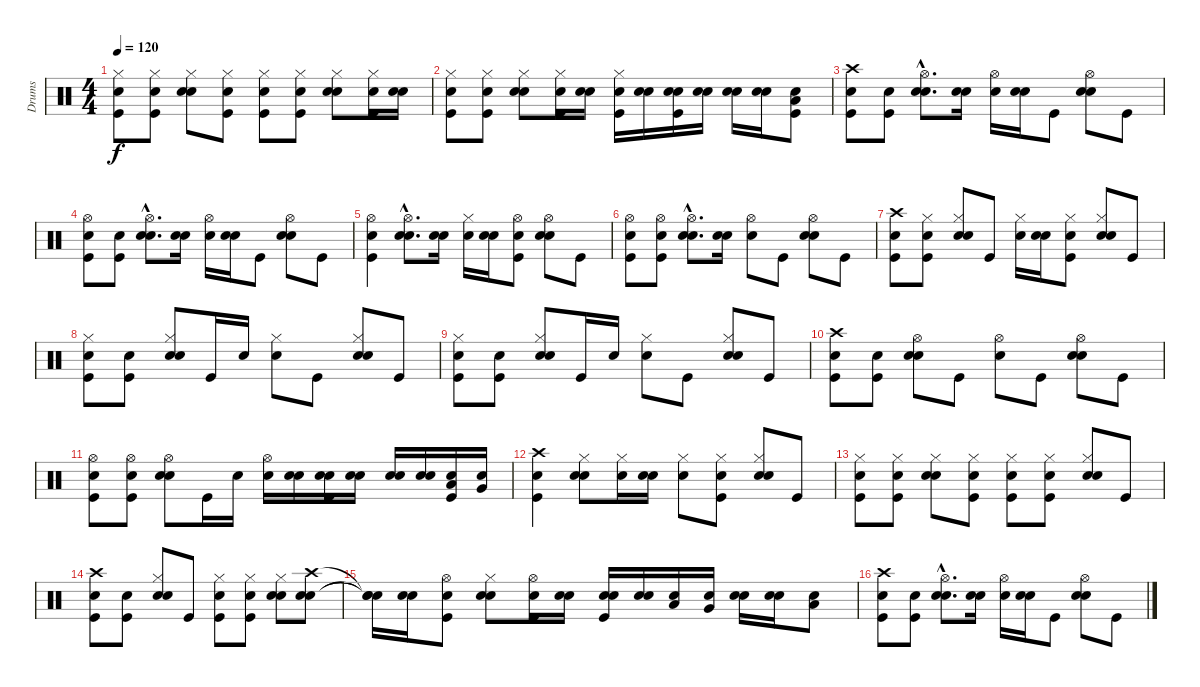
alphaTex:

\track ("Drums" "Drums") {instrument percussion}
\staff {score}
\articulation defaults
\ts (4 4)
\tempo 120
\clef neutral
\ks c
("Snare (hit)" "Kick (hit)" "Hi-Hat (closed)").8{dy f} ("Snare (hit)" "Kick (hit)" "Hi-Hat (closed)").8 ("Snare (hit)" "Electric Snare (hit)" "Hi-Hat (closed)").8 ("Snare (hit)" "Kick (hit)" "Hi-Hat (closed)").8 ("Snare (hit)" "Kick (hit)" "Hi-Hat (closed)").8 ("Snare (hit)" "Kick (hit)" "Hi-Hat (closed)").8 ("Snare (hit)" "Electric Snare (hit)" "Hi-Hat (closed)").8 ("Snare (hit)" "Kick (hit)" "Hi-Hat (closed)").16 ("Snare (hit)" "Electric Snare (hit)").16 |
("Snare (hit)" "Kick (hit)" "Hi-Hat (closed)").8 ("Snare (hit)" "Kick (hit)" "Hi-Hat (closed)").8 ("Snare (hit)" "Electric Snare (hit)" "Hi-Hat (closed)").8 ("Snare (hit)" "Kick (hit)" "Hi-Hat (closed)").16 ("Snare (hit)" "Electric Snare (hit)").16 ("Snare (hit)" "Kick (hit)" "Hi-Hat (closed)").16 ("Snare (hit)" "Electric Snare (hit)").16 ("Snare (hit)" "Kick (hit)" "Electric Snare (hit)").16 ("Snare (hit)" "Electric Snare (hit)").16 ("Snare (hit)" "Electric Snare (hit)").16 ("Snare (hit)" "Electric Snare (hit)").16 ("Snare (hit)" "Kick (hit)" "Low Tom (hit)").8 |
("Snare (hit)" "Kick (hit)" "Crash high (hit)").8 ("Snare (hit)" "Kick (hit)").8 ("Snare (hit)"{hac} "Electric Snare (hit)"{hac} "Hi-Hat (open)"{hac}).8{d} ("Snare (hit)" "Electric Snare (hit)").16 ("Snare (hit)" "Hi-Hat (open)").16 ("Snare (hit)" "Electric Snare (hit)").16 "Kick (hit)".8 ("Snare (hit)" "Electric Snare (hit)" "Hi-Hat (open)").8 "Kick (hit)".8 |
("Snare (hit)" "Hi-Hat (open)" "Kick (hit)").8 ("Snare (hit)" "Kick (hit)").8 ("Snare (hit)"{hac} "Electric Snare (hit)"{hac} "Hi-Hat (open)"{hac}).8{d} ("Snare (hit)" "Electric Snare (hit)").16 ("Snare (hit)" "Hi-Hat (open)").16 ("Snare (hit)" "Electric Snare (hit)").16 "Kick (hit)".8 ("Snare (hit)" "Electric Snare (hit)" "Hi-Hat (open)").8 "Kick (hit)".8 |
("Snare (hit)" "Hi-Hat (open)" "Kick (hit)").4 ("Snare (hit)"{hac} "Electric Snare (hit)"{hac} "Hi-Hat (open)"{hac}).8{d} ("Snare (hit)" "Electric Snare (hit)").16 ("Snare (hit)" "Hi-Hat (closed)").16 ("Snare (hit)" "Electric Snare (hit)").16 ("Snare (hit)" "Hi-Hat (open)" "Kick (hit)").8 ("Snare (hit)" "Electric Snare (hit)" "Hi-Hat (open)").8 "Kick (hit)".8 |
("Snare (hit)" "Hi-Hat (open)" "Kick (hit)").8 ("Snare (hit)" "Hi-Hat (open)" "Kick (hit)").8 ("Snare (hit)"{hac} "Electric Snare (hit)"{hac} "Hi-Hat (open)"{hac}).8{d} ("Snare (hit)" "Electric Snare (hit)").16 ("Snare (hit)" "Hi-Hat (open)").8 "Kick (hit)".8 ("Snare (hit)" "Electric Snare (hit)" "Hi-Hat (open)").8 "Kick (hit)".8 |
("Snare (hit)" "Crash high (hit)" "Kick (hit)").8 ("Snare (hit)" "Hi-Hat (closed)" "Kick (hit)").8 ("Snare (hit)" "Electric Snare (hit)" "Hi-Hat (closed)").8 "Kick (hit)".8 ("Snare (hit)" "Hi-Hat (closed)").16 ("Snare (hit)" "Electric Snare (hit)").16 ("Snare (hit)" "Hi-Hat (closed)" "Kick (hit)").8 ("Snare (hit)" "Electric Snare (hit)" "Hi-Hat (closed)").8 "Kick (hit)".8 |
("Snare (hit)" "Hi-Hat (closed)" "Kick (hit)").8 ("Snare (hit)" "Kick (hit)").8 ("Snare (hit)" "Electric Snare (hit)" "Hi-Hat (closed)").8 "Kick (hit)".16 "Electric Snare (hit)".16 ("Snare (hit)" "Hi-Hat (closed)").8 "Kick (hit)".8 ("Snare (hit)" "Electric Snare (hit)" "Hi-Hat (closed)").8 "Kick (hit)".8 |
("Snare (hit)" "Hi-Hat (closed)" "Kick (hit)").8 ("Snare (hit)" "Kick (hit)").8 ("Snare (hit)" "Electric Snare (hit)" "Hi-Hat (closed)").8 "Kick (hit)".16 "Electric Snare (hit)".16 ("Snare (hit)" "Hi-Hat (closed)").8 "Kick (hit)".8 ("Snare (hit)" "Electric Snare (hit)" "Hi-Hat (closed)").8 "Kick (hit)".8 |
("Snare (hit)" "Crash high (hit)" "Kick (hit)").8 ("Snare (hit)" "Kick (hit)").8 ("Snare (hit)" "Electric Snare (hit)" "Hi-Hat (open)").8 "Kick (hit)".8 ("Snare (hit)" "Hi-Hat (open)").8 "Kick (hit)".8 ("Snare (hit)" "Electric Snare (hit)" "Hi-Hat (open)").8 "Kick (hit)".8 |
("Snare (hit)" "Hi-Hat (open)" "Kick (hit)").8 ("Snare (hit)" "Hi-Hat (open)" "Kick (hit)").8 ("Snare (hit)" "Electric Snare (hit)" "Hi-Hat (open)").8 "Kick (hit)".16 "Electric Snare (hit)".16 ("Snare (hit)" "Hi-Hat (open)").16 ("Snare (hit)" "Electric Snare (hit)").16 ("Snare (hit)" "Electric Snare (hit)" "Kick (hit)").16 ("Snare (hit)" "Electric Snare (hit)").16 ("Snare (hit)" "Electric Snare (hit)").16 ("Snare (hit)" "Electric Snare (hit)").16 ("Snare (hit)" "Low Tom (hit)" "Kick (hit)").16 ("Snare (hit)" "Very Low Tom (hit)").16 |
("Snare (hit)" "Crash high (hit)" "Kick (hit)").4 ("Snare (hit)" "Electric Snare (hit)" "Hi-Hat (closed)").8 ("Snare (hit)" "Hi-Hat (closed)").16 ("Snare (hit)" "Electric Snare (hit)").16 ("Snare (hit)" "Hi-Hat (closed)").8 ("Snare (hit)" "Hi-Hat (closed)" "Kick (hit)").8 ("Snare (hit)" "Electric Snare (hit)" "Hi-Hat (closed)").8 "Kick (hit)".8 |
("Snare (hit)" "Hi-Hat (closed)" "Kick (hit)").8 ("Snare (hit)" "Hi-Hat (closed)" "Kick (hit)").8 ("Snare (hit)" "Electric Snare (hit)" "Hi-Hat (closed)").8 ("Snare (hit)" "Hi-Hat (closed)" "Kick (hit)").8 ("Snare (hit)" "Hi-Hat (closed)" "Kick (hit)").8 ("Snare (hit)" "Hi-Hat (closed)" "Kick (hit)").8 ("Snare (hit)" "Electric Snare (hit)" "Hi-Hat (closed)").8 "Kick (hit)".8 |
("Snare (hit)" "Crash high (hit)" "Kick (hit)").8 ("Snare (hit)" "Kick (hit)").8 ("Snare (hit)" "Electric Snare (hit)" "Hi-Hat (closed)").8 "Kick (hit)".8 ("Snare (hit)" "Hi-Hat (closed)" "Kick (hit)").8 ("Snare (hit)" "Hi-Hat (closed)" "Kick (hit)").8 ("Snare (hit)" "Electric Snare (hit)" "Hi-Hat (closed)").8 ("Snare (hit)" "Electric Snare (hit)" "Crash high (hit)").8 |
("Snare (hit)"{t} "Snare (hit)"{t} "Snare (hit)"{t}).16 ("Snare (hit)" "Electric Snare (hit)").16 ("Snare (hit)" "Hi-Hat (open)" "Kick (hit)").8 ("Snare (hit)" "Electric Snare (hit)" "Hi-Hat (closed)").8 ("Snare (hit)" "Hi-Hat (open)" "Kick (hit)").16 ("Snare (hit)" "Electric Snare (hit)").16 ("Snare (hit)" "Electric Snare (hit)" "Kick (hit)").16 ("Snare (hit)" "Electric Snare (hit)").16 ("Snare (hit)" "Low Tom (hit)").16 ("Snare (hit)" "Very Low Tom (hit)").16 ("Snare (hit)" "Electric Snare (hit)").16 ("Snare (hit)" "Electric Snare (hit)").16 ("Snare (hit)" "Low Tom (hit)").8 |
("Snare (hit)" "Kick (hit)" "Crash high (hit)").8 ("Snare (hit)" "Kick (hit)").8 ("Snare (hit)"{hac} "Electric Snare (hit)"{hac} "Hi-Hat (open)"{hac}).8{d} ("Snare (hit)" "Electric Snare (hit)").16 ("Snare (hit)" "Hi-Hat (open)").16 ("Snare (hit)" "Electric Snare (hit)").16 "Kick (hit)".8 ("Snare (hit)" "Electric Snare (hit)" "Hi-Hat (open)").8 "Kick (hit)".8
